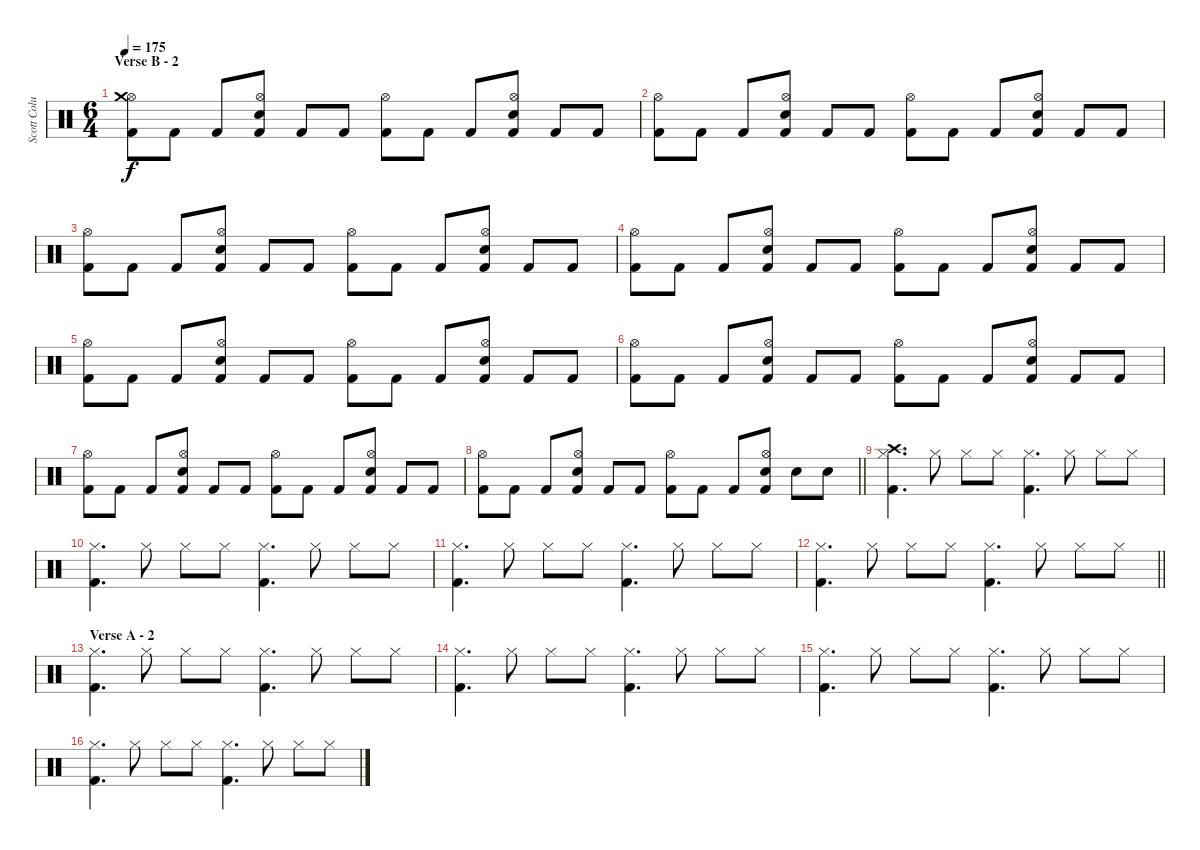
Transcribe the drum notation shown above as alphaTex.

\track ("Scott Columbus" "Scott Colu") {instrument percussion}
\staff {score}
\articulation defaults
\ts (6 4)
\section ("" "Verse B - 2")
\tempo 175
\clef neutral
\ks c
("Kick (hit) 2" "Hi-Hat (open)" "Crash medium (hit)").8{dy f} "Kick (hit) 2".8 "Kick (hit) 2".8 ("Kick (hit) 2" "Snare (hit) 2" "Hi-Hat (open)").8 "Kick (hit) 2".8 "Kick (hit) 2".8 ("Kick (hit) 2" "Hi-Hat (open)").8 "Kick (hit) 2".8 "Kick (hit) 2".8 ("Kick (hit) 2" "Snare (hit) 2" "Hi-Hat (open)").8 "Kick (hit) 2".8 "Kick (hit) 2".8 |
("Kick (hit) 2" "Hi-Hat (open)").8 "Kick (hit) 2".8 "Kick (hit) 2".8 ("Kick (hit) 2" "Snare (hit) 2" "Hi-Hat (open)").8 "Kick (hit) 2".8 "Kick (hit) 2".8 ("Kick (hit) 2" "Hi-Hat (open)").8 "Kick (hit) 2".8 "Kick (hit) 2".8 ("Kick (hit) 2" "Snare (hit) 2" "Hi-Hat (open)").8 "Kick (hit) 2".8 "Kick (hit) 2".8 |
("Kick (hit) 2" "Hi-Hat (open)").8 "Kick (hit) 2".8 "Kick (hit) 2".8 ("Kick (hit) 2" "Snare (hit) 2" "Hi-Hat (open)").8 "Kick (hit) 2".8 "Kick (hit) 2".8 ("Kick (hit) 2" "Hi-Hat (open)").8 "Kick (hit) 2".8 "Kick (hit) 2".8 ("Kick (hit) 2" "Snare (hit) 2" "Hi-Hat (open)").8 "Kick (hit) 2".8 "Kick (hit) 2".8 |
("Kick (hit) 2" "Hi-Hat (open)").8 "Kick (hit) 2".8 "Kick (hit) 2".8 ("Kick (hit) 2" "Snare (hit) 2" "Hi-Hat (open)").8 "Kick (hit) 2".8 "Kick (hit) 2".8 ("Kick (hit) 2" "Hi-Hat (open)").8 "Kick (hit) 2".8 "Kick (hit) 2".8 ("Kick (hit) 2" "Snare (hit) 2" "Hi-Hat (open)").8 "Kick (hit) 2".8 "Kick (hit) 2".8 |
("Kick (hit) 2" "Hi-Hat (open)").8 "Kick (hit) 2".8 "Kick (hit) 2".8 ("Kick (hit) 2" "Snare (hit) 2" "Hi-Hat (open)").8 "Kick (hit) 2".8 "Kick (hit) 2".8 ("Kick (hit) 2" "Hi-Hat (open)").8 "Kick (hit) 2".8 "Kick (hit) 2".8 ("Kick (hit) 2" "Snare (hit) 2" "Hi-Hat (open)").8 "Kick (hit) 2".8 "Kick (hit) 2".8 |
("Kick (hit) 2" "Hi-Hat (open)").8 "Kick (hit) 2".8 "Kick (hit) 2".8 ("Kick (hit) 2" "Snare (hit) 2" "Hi-Hat (open)").8 "Kick (hit) 2".8 "Kick (hit) 2".8 ("Kick (hit) 2" "Hi-Hat (open)").8 "Kick (hit) 2".8 "Kick (hit) 2".8 ("Kick (hit) 2" "Snare (hit) 2" "Hi-Hat (open)").8 "Kick (hit) 2".8 "Kick (hit) 2".8 |
("Kick (hit) 2" "Hi-Hat (open)").8 "Kick (hit) 2".8 "Kick (hit) 2".8 ("Kick (hit) 2" "Snare (hit) 2" "Hi-Hat (open)").8 "Kick (hit) 2".8 "Kick (hit) 2".8 ("Kick (hit) 2" "Hi-Hat (open)").8 "Kick (hit) 2".8 "Kick (hit) 2".8 ("Kick (hit) 2" "Snare (hit) 2" "Hi-Hat (open)").8 "Kick (hit) 2".8 "Kick (hit) 2".8 |
\barLineRight lightlight
("Kick (hit) 2" "Hi-Hat (open)").8 "Kick (hit) 2".8 "Kick (hit) 2".8 ("Kick (hit) 2" "Snare (hit) 2" "Hi-Hat (open)").8 "Kick (hit) 2".8 "Kick (hit) 2".8 ("Kick (hit) 2" "Hi-Hat (open)").8 "Kick (hit) 2".8 "Kick (hit) 2".8 ("Kick (hit) 2" "Snare (hit) 2" "Hi-Hat (open)").8 "Snare (hit) 2".8 "Snare (hit) 2".8 |
("Kick (hit) 2" "Hi-Hat (closed)" "Crash high (hit)").4{d} "Hi-Hat (closed)".8 "Hi-Hat (closed)".8 "Hi-Hat (closed)".8 ("Kick (hit) 2" "Hi-Hat (closed)").4{d} "Hi-Hat (closed)".8 "Hi-Hat (closed)".8 "Hi-Hat (closed)".8 |
("Kick (hit) 2" "Hi-Hat (closed)").4{d} "Hi-Hat (closed)".8 "Hi-Hat (closed)".8 "Hi-Hat (closed)".8 ("Kick (hit) 2" "Hi-Hat (closed)").4{d} "Hi-Hat (closed)".8 "Hi-Hat (closed)".8 "Hi-Hat (closed)".8 |
("Kick (hit) 2" "Hi-Hat (closed)").4{d} "Hi-Hat (closed)".8 "Hi-Hat (closed)".8 "Hi-Hat (closed)".8 ("Kick (hit) 2" "Hi-Hat (closed)").4{d} "Hi-Hat (closed)".8 "Hi-Hat (closed)".8 "Hi-Hat (closed)".8 |
\barLineRight lightlight
("Kick (hit) 2" "Hi-Hat (closed)").4{d} "Hi-Hat (closed)".8 "Hi-Hat (closed)".8 "Hi-Hat (closed)".8 ("Kick (hit) 2" "Hi-Hat (closed)").4{d} "Hi-Hat (closed)".8 "Hi-Hat (closed)".8 "Hi-Hat (closed)".8 |
\section ("" "Verse A - 2")
("Kick (hit) 2" "Hi-Hat (closed)").4{d} "Hi-Hat (closed)".8 "Hi-Hat (closed)".8 "Hi-Hat (closed)".8 ("Kick (hit) 2" "Hi-Hat (closed)").4{d} "Hi-Hat (closed)".8 "Hi-Hat (closed)".8 "Hi-Hat (closed)".8 |
("Kick (hit) 2" "Hi-Hat (closed)").4{d} "Hi-Hat (closed)".8 "Hi-Hat (closed)".8 "Hi-Hat (closed)".8 ("Kick (hit) 2" "Hi-Hat (closed)").4{d} "Hi-Hat (closed)".8 "Hi-Hat (closed)".8 "Hi-Hat (closed)".8 |
("Kick (hit) 2" "Hi-Hat (closed)").4{d} "Hi-Hat (closed)".8 "Hi-Hat (closed)".8 "Hi-Hat (closed)".8 ("Kick (hit) 2" "Hi-Hat (closed)").4{d} "Hi-Hat (closed)".8 "Hi-Hat (closed)".8 "Hi-Hat (closed)".8 |
("Kick (hit) 2" "Hi-Hat (closed)").4{d} "Hi-Hat (closed)".8 "Hi-Hat (closed)".8 "Hi-Hat (closed)".8 ("Kick (hit) 2" "Hi-Hat (closed)").4{d} "Hi-Hat (closed)".8 "Hi-Hat (closed)".8 "Hi-Hat (closed)".8
